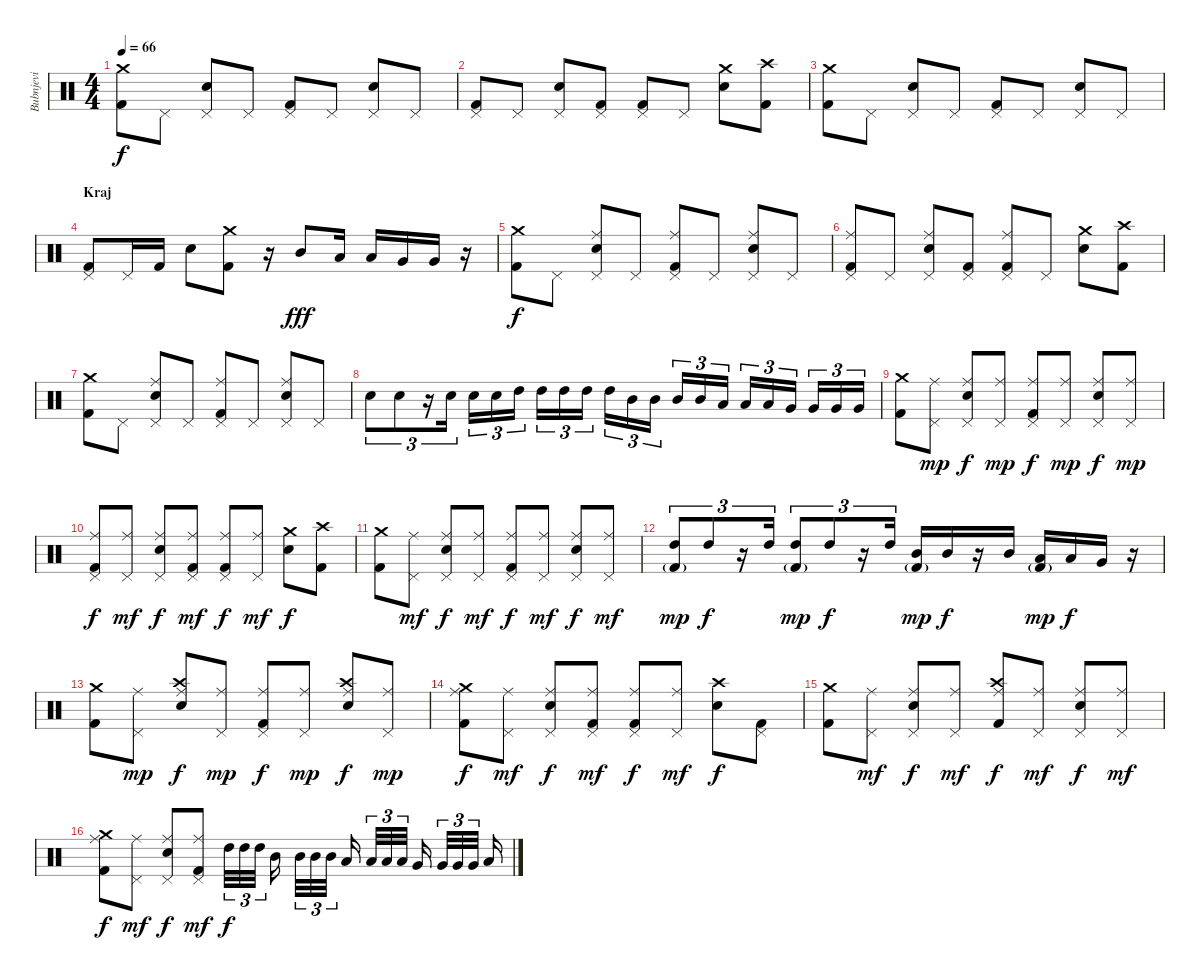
\track ("Bubnjevi" "Bubnjevi") {instrument percussion}
\staff {score}
\articulation defaults
\ts (4 4)
\tempo 66
\clef neutral
\ks c
("Crash medium (hit)" "Kick (hit) 2").8{dy f} "Pedal Hi-Hat (hit)".8 ("Pedal Hi-Hat (hit)" "Electric Snare (hit)").8 "Pedal Hi-Hat (hit)".8 ("Pedal Hi-Hat (hit)" "Kick (hit) 2").8 "Pedal Hi-Hat (hit)".8 ("Pedal Hi-Hat (hit)" "Electric Snare (hit)").8 "Pedal Hi-Hat (hit)".8 |
("Pedal Hi-Hat (hit)" "Kick (hit) 2").8 "Pedal Hi-Hat (hit)".8 ("Pedal Hi-Hat (hit)" "Electric Snare (hit)").8 ("Pedal Hi-Hat (hit)" "Kick (hit) 2").8 ("Pedal Hi-Hat (hit)" "Kick (hit) 2").8 "Pedal Hi-Hat (hit)".8 ("Crash medium (hit)" "Electric Snare (hit)").8 ("Crash high (hit)" "Kick (hit) 2").8 |
("Crash medium (hit)" "Kick (hit) 2").8 "Pedal Hi-Hat (hit)".8 ("Pedal Hi-Hat (hit)" "Electric Snare (hit)").8 "Pedal Hi-Hat (hit)".8 ("Pedal Hi-Hat (hit)" "Kick (hit) 2").8 "Pedal Hi-Hat (hit)".8 ("Pedal Hi-Hat (hit)" "Electric Snare (hit)").8 "Pedal Hi-Hat (hit)".8 |
\section ("" "Kraj")
("Pedal Hi-Hat (hit)" "Kick (hit) 2").8 "Pedal Hi-Hat (hit)".16 "Kick (hit) 2".16 "Electric Snare (hit)".8 ("Crash medium (hit)" "Kick (hit) 2").8 r.16 "Mid Tom (hit)".8{dy fff} "Low Tom (hit)".16 "Low Tom (hit)".16 "Very Low Tom (hit)".16 "Very Low Tom (hit)".16 r.16 |
("Crash medium (hit)" "Kick (hit) 2").8{dy f} "Pedal Hi-Hat (hit)".8 ("Pedal Hi-Hat (hit)" "Electric Snare (hit)" "Ride (middle)").8 "Pedal Hi-Hat (hit)".8 ("Pedal Hi-Hat (hit)" "Kick (hit) 2" "Ride (middle)").8 "Pedal Hi-Hat (hit)".8 ("Pedal Hi-Hat (hit)" "Electric Snare (hit)" "Ride (middle)").8 "Pedal Hi-Hat (hit)".8 |
("Pedal Hi-Hat (hit)" "Kick (hit) 2" "Ride (middle)").8 "Pedal Hi-Hat (hit)".8 ("Pedal Hi-Hat (hit)" "Electric Snare (hit)" "Ride (middle)").8 ("Pedal Hi-Hat (hit)" "Kick (hit) 2").8 ("Pedal Hi-Hat (hit)" "Kick (hit) 2" "Ride (middle)").8 "Pedal Hi-Hat (hit)".8 ("Crash medium (hit)" "Electric Snare (hit)").8 ("Crash high (hit)" "Kick (hit) 2").8 |
("Crash medium (hit)" "Kick (hit) 2").8 "Pedal Hi-Hat (hit)".8 ("Pedal Hi-Hat (hit)" "Electric Snare (hit)" "Ride (middle)").8 "Pedal Hi-Hat (hit)".8 ("Pedal Hi-Hat (hit)" "Kick (hit) 2" "Ride (middle)").8 "Pedal Hi-Hat (hit)".8 ("Pedal Hi-Hat (hit)" "Electric Snare (hit)" "Ride (middle)").8 "Pedal Hi-Hat (hit)".8 |
"Electric Snare (hit)".8{tu (3 2)} "Electric Snare (hit)".8{tu (3 2)} r.16{tu (3 2)} "Electric Snare (hit)".16{tu (3 2)} "Electric Snare (hit)".16{tu (3 2)} "Electric Snare (hit)".16{tu (3 2)} "High Tom (hit)".16{tu (3 2)} "High Tom (hit)".16{tu (3 2)} "High Tom (hit)".16{tu (3 2)} "High Tom (hit)".16{tu (3 2)} "High Tom (hit)".16{tu (3 2)} "Mid Tom (hit)".16{tu (3 2)} "Mid Tom (hit)".16{tu (3 2)} "Mid Tom (hit)".16{tu (3 2)} "Mid Tom (hit)".16{tu (3 2)} "Low Tom (hit)".16{tu (3 2)} "Low Tom (hit)".16{tu (3 2)} "Low Tom (hit)".16{tu (3 2)} "Very Low Tom (hit)".16{tu (3 2)} "Very Low Tom (hit)".16{tu (3 2)} "Very Low Tom (hit)".16{tu (3 2)} "Very Low Tom (hit)".16{tu (3 2)} |
("Crash medium (hit)" "Kick (hit) 2").8 ("Pedal Hi-Hat (hit)" "Ride (middle)").8{dy mp} ("Pedal Hi-Hat (hit)" "Electric Snare (hit)" "Ride (middle)").8{dy f} ("Pedal Hi-Hat (hit)" "Ride (middle)").8{dy mp} ("Pedal Hi-Hat (hit)" "Kick (hit) 2" "Ride (middle)").8{dy f} ("Pedal Hi-Hat (hit)" "Ride (middle)").8{dy mp} ("Pedal Hi-Hat (hit)" "Electric Snare (hit)" "Ride (middle)").8{dy f} ("Pedal Hi-Hat (hit)" "Ride (middle)").8{dy mp} |
("Pedal Hi-Hat (hit)" "Kick (hit) 2" "Ride (middle)").8{dy f} ("Pedal Hi-Hat (hit)" "Ride (middle)").8{dy mf} ("Pedal Hi-Hat (hit)" "Electric Snare (hit)" "Ride (middle)").8{dy f} ("Pedal Hi-Hat (hit)" "Kick (hit) 2" "Ride (middle)").8{dy mf} ("Pedal Hi-Hat (hit)" "Kick (hit) 2" "Ride (middle)").8{dy f} ("Pedal Hi-Hat (hit)" "Ride (middle)").8{dy mf} ("Crash medium (hit)" "Electric Snare (hit)").8{dy f} ("Crash high (hit)" "Kick (hit) 2").8 |
("Crash medium (hit)" "Kick (hit) 2").8 ("Pedal Hi-Hat (hit)" "Ride (middle)").8{dy mf} ("Pedal Hi-Hat (hit)" "Electric Snare (hit)" "Ride (middle)").8{dy f} ("Pedal Hi-Hat (hit)" "Ride (middle)").8{dy mf} ("Pedal Hi-Hat (hit)" "Kick (hit) 2" "Ride (middle)").8{dy f} ("Pedal Hi-Hat (hit)" "Ride (middle)").8{dy mf} ("Pedal Hi-Hat (hit)" "Electric Snare (hit)" "Ride (middle)").8{dy f} ("Pedal Hi-Hat (hit)" "Ride (middle)").8{dy mf} |
("High Tom (hit)" "Kick (hit) 2"{g}).8{tu (3 2) dy mp} "High Tom (hit)".8{tu (3 2) dy f} r.16{tu (3 2)} "High Tom (hit)".16{tu (3 2)} ("High Tom (hit)" "Kick (hit) 2"{g}).8{tu (3 2) dy mp} "High Tom (hit)".8{tu (3 2) dy f} r.16{tu (3 2)} "High Tom (hit)".16{tu (3 2)} ("Mid Tom (hit)" "Kick (hit) 2"{g}).16{dy mp} "Mid Tom (hit)".16{dy f} r.16 "Mid Tom (hit)".16 ("Low Tom (hit)" "Kick (hit) 2"{g}).16{dy mp} "Low Tom (hit)".16{dy f} "Very Low Tom (hit)".16 r.16 |
("Crash medium (hit)" "Kick (hit) 2").8 ("Pedal Hi-Hat (hit)" "Ride (middle)").8{dy mp} ("Crash high (hit)" "Electric Snare (hit)" "Ride (middle)").8{dy f} ("Pedal Hi-Hat (hit)" "Ride (middle)").8{dy mp} ("Pedal Hi-Hat (hit)" "Kick (hit) 2" "Ride (middle)").8{dy f} ("Pedal Hi-Hat (hit)" "Ride (middle)").8{dy mp} ("Crash high (hit)" "Electric Snare (hit)" "Ride (middle)").8{dy f} ("Pedal Hi-Hat (hit)" "Ride (middle)").8{dy mp} |
("Crash medium (hit)" "Kick (hit) 2" "Ride (middle)").8{dy f} ("Pedal Hi-Hat (hit)" "Ride (middle)").8{dy mf} ("Pedal Hi-Hat (hit)" "Electric Snare (hit)" "Ride (middle)").8{dy f} ("Pedal Hi-Hat (hit)" "Kick (hit) 2" "Ride (middle)").8{dy mf} ("Pedal Hi-Hat (hit)" "Kick (hit) 2" "Ride (middle)").8{dy f} ("Pedal Hi-Hat (hit)" "Ride (middle)").8{dy mf} ("Crash high (hit)" "Electric Snare (hit)").8{dy f} ("Pedal Hi-Hat (hit)" "Kick (hit) 2").8 |
("Crash medium (hit)" "Kick (hit) 2").8 ("Pedal Hi-Hat (hit)" "Ride (middle)").8{dy mf} ("Pedal Hi-Hat (hit)" "Electric Snare (hit)" "Ride (middle)").8{dy f} ("Pedal Hi-Hat (hit)" "Ride (middle)").8{dy mf} ("Crash high (hit)" "Kick (hit) 2" "Ride (middle)").8{dy f} ("Pedal Hi-Hat (hit)" "Ride (middle)").8{dy mf} ("Pedal Hi-Hat (hit)" "Electric Snare (hit)" "Ride (middle)").8{dy f} ("Pedal Hi-Hat (hit)" "Ride (middle)").8{dy mf} |
("Crash medium (hit)" "Kick (hit) 2" "Ride (middle)").8{dy f} ("Pedal Hi-Hat (hit)" "Ride (middle)").8{dy mf} ("Pedal Hi-Hat (hit)" "Electric Snare (hit)" "Ride (middle)").8{dy f} ("Pedal Hi-Hat (hit)" "Kick (hit) 2" "Ride (middle)").8{dy mf} "High Tom (hit)".32{tu (3 2) dy f} "High Tom (hit)".32{tu (3 2)} "High Tom (hit)".32{tu (3 2)} "Mid Tom (hit)".16 "Mid Tom (hit)".32{tu (3 2)} "Mid Tom (hit)".32{tu (3 2)} "Mid Tom (hit)".32{tu (3 2)} "Low Tom (hit)".16 "Low Tom (hit)".32{tu (3 2)} "Low Tom (hit)".32{tu (3 2)} "Low Tom (hit)".32{tu (3 2)} "Very Low Tom (hit)".16 "Very Low Tom (hit)".32{tu (3 2)} "Very Low Tom (hit)".32{tu (3 2)} "Very Low Tom (hit)".32{tu (3 2)} "Low Floor Tom (hit)".16
